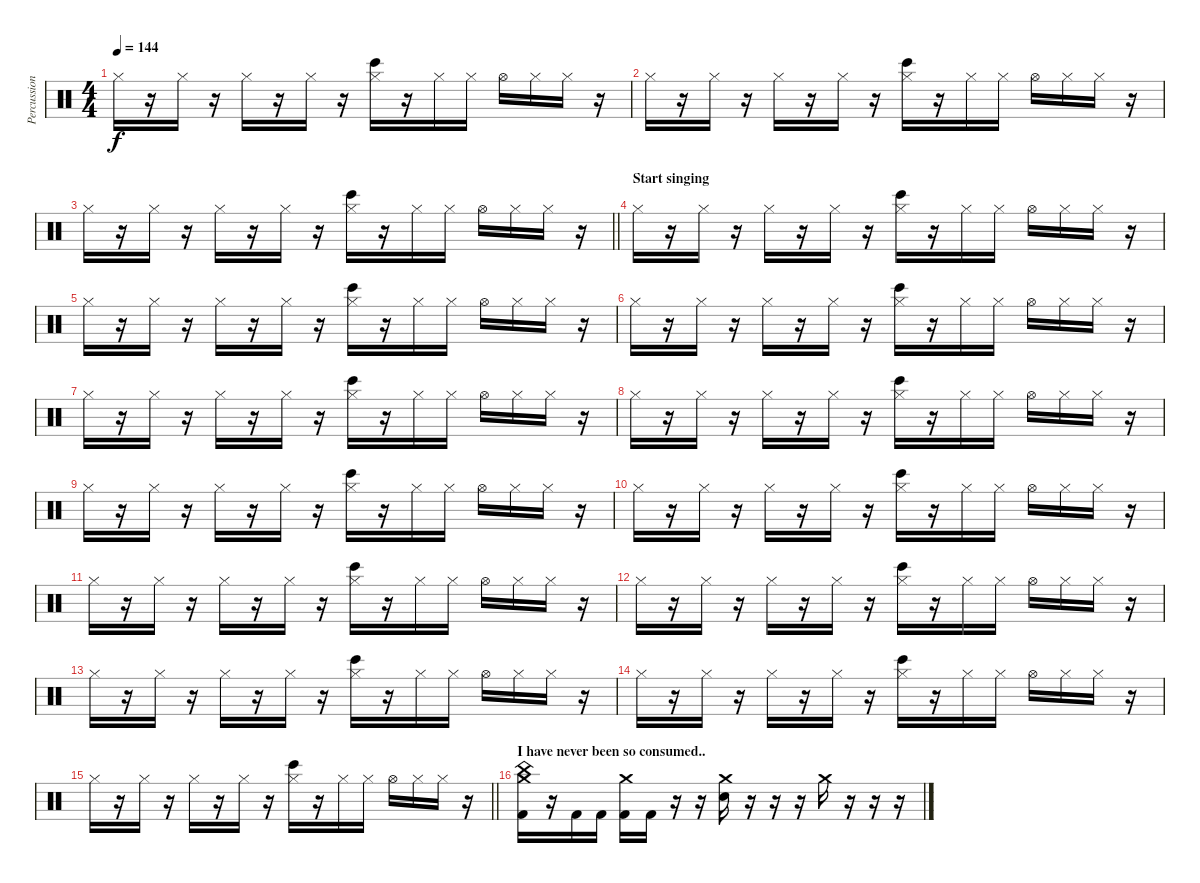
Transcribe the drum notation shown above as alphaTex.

\track ("Percussion" "Percussion") {instrument percussion}
\staff {score}
\articulation defaults
\ts (4 4)
\tempo 144
\clef neutral
\ks c "Hi-Hat (closed)".16{dy f}
r.16 "Hi-Hat (closed)".16 r.16 "Hi-Hat (closed)".16 r.16 "Hi-Hat (closed)".16 r.16 ("Hi-Hat (closed)" "Bongo High (hit)").16 r.16 "Hi-Hat (closed)".16 "Hi-Hat (closed)".16 "Hi-Hat (open)".16 "Hi-Hat (closed)".16 "Hi-Hat (closed)".16 r.16 |
"Hi-Hat (closed)".16 r.16 "Hi-Hat (closed)".16 r.16 "Hi-Hat (closed)".16 r.16 "Hi-Hat (closed)".16 r.16 ("Hi-Hat (closed)" "Bongo High (hit)").16 r.16 "Hi-Hat (closed)".16 "Hi-Hat (closed)".16 "Hi-Hat (open)".16 "Hi-Hat (closed)".16 "Hi-Hat (closed)".16 r.16 |
\barLineRight lightlight "Hi-Hat (closed)".16
r.16 "Hi-Hat (closed)".16 r.16 "Hi-Hat (closed)".16 r.16 "Hi-Hat (closed)".16 r.16 ("Hi-Hat (closed)" "Bongo High (hit)").16 r.16 "Hi-Hat (closed)".16 "Hi-Hat (closed)".16 "Hi-Hat (open)".16 "Hi-Hat (closed)".16 "Hi-Hat (closed)".16 r.16 |
\section ("" "Start singing")
"Hi-Hat (closed)".16 r.16 "Hi-Hat (closed)".16 r.16 "Hi-Hat (closed)".16 r.16 "Hi-Hat (closed)".16 r.16 ("Hi-Hat (closed)" "Bongo High (hit)").16 r.16 "Hi-Hat (closed)".16 "Hi-Hat (closed)".16 "Hi-Hat (open)".16 "Hi-Hat (closed)".16 "Hi-Hat (closed)".16 r.16 |
"Hi-Hat (closed)".16 r.16 "Hi-Hat (closed)".16 r.16 "Hi-Hat (closed)".16 r.16 "Hi-Hat (closed)".16 r.16 ("Hi-Hat (closed)" "Bongo High (hit)").16 r.16 "Hi-Hat (closed)".16 "Hi-Hat (closed)".16 "Hi-Hat (open)".16 "Hi-Hat (closed)".16 "Hi-Hat (closed)".16 r.16 |
"Hi-Hat (closed)".16 r.16 "Hi-Hat (closed)".16 r.16 "Hi-Hat (closed)".16 r.16 "Hi-Hat (closed)".16 r.16 ("Hi-Hat (closed)" "Bongo High (hit)").16 r.16 "Hi-Hat (closed)".16 "Hi-Hat (closed)".16 "Hi-Hat (open)".16 "Hi-Hat (closed)".16 "Hi-Hat (closed)".16 r.16 |
"Hi-Hat (closed)".16 r.16 "Hi-Hat (closed)".16 r.16 "Hi-Hat (closed)".16 r.16 "Hi-Hat (closed)".16 r.16 ("Hi-Hat (closed)" "Bongo High (hit)").16 r.16 "Hi-Hat (closed)".16 "Hi-Hat (closed)".16 "Hi-Hat (open)".16 "Hi-Hat (closed)".16 "Hi-Hat (closed)".16 r.16 |
"Hi-Hat (closed)".16 r.16 "Hi-Hat (closed)".16 r.16 "Hi-Hat (closed)".16 r.16 "Hi-Hat (closed)".16 r.16 ("Hi-Hat (closed)" "Bongo High (hit)").16 r.16 "Hi-Hat (closed)".16 "Hi-Hat (closed)".16 "Hi-Hat (open)".16 "Hi-Hat (closed)".16 "Hi-Hat (closed)".16 r.16 |
"Hi-Hat (closed)".16 r.16 "Hi-Hat (closed)".16 r.16 "Hi-Hat (closed)".16 r.16 "Hi-Hat (closed)".16 r.16 ("Hi-Hat (closed)" "Bongo High (hit)").16 r.16 "Hi-Hat (closed)".16 "Hi-Hat (closed)".16 "Hi-Hat (open)".16 "Hi-Hat (closed)".16 "Hi-Hat (closed)".16 r.16 |
"Hi-Hat (closed)".16 r.16 "Hi-Hat (closed)".16 r.16 "Hi-Hat (closed)".16 r.16 "Hi-Hat (closed)".16 r.16 ("Hi-Hat (closed)" "Bongo High (hit)").16 r.16 "Hi-Hat (closed)".16 "Hi-Hat (closed)".16 "Hi-Hat (open)".16 "Hi-Hat (closed)".16 "Hi-Hat (closed)".16 r.16 |
"Hi-Hat (closed)".16 r.16 "Hi-Hat (closed)".16 r.16 "Hi-Hat (closed)".16 r.16 "Hi-Hat (closed)".16 r.16 ("Hi-Hat (closed)" "Bongo High (hit)").16 r.16 "Hi-Hat (closed)".16 "Hi-Hat (closed)".16 "Hi-Hat (open)".16 "Hi-Hat (closed)".16 "Hi-Hat (closed)".16 r.16 |
"Hi-Hat (closed)".16 r.16 "Hi-Hat (closed)".16 r.16 "Hi-Hat (closed)".16 r.16 "Hi-Hat (closed)".16 r.16 ("Hi-Hat (closed)" "Bongo High (hit)").16 r.16 "Hi-Hat (closed)".16 "Hi-Hat (closed)".16 "Hi-Hat (open)".16 "Hi-Hat (closed)".16 "Hi-Hat (closed)".16 r.16 |
"Hi-Hat (closed)".16 r.16 "Hi-Hat (closed)".16 r.16 "Hi-Hat (closed)".16 r.16 "Hi-Hat (closed)".16 r.16 ("Hi-Hat (closed)" "Bongo High (hit)").16 r.16 "Hi-Hat (closed)".16 "Hi-Hat (closed)".16 "Hi-Hat (open)".16 "Hi-Hat (closed)".16 "Hi-Hat (closed)".16 r.16 |
"Hi-Hat (closed)".16 r.16 "Hi-Hat (closed)".16 r.16 "Hi-Hat (closed)".16 r.16 "Hi-Hat (closed)".16 r.16 ("Hi-Hat (closed)" "Bongo High (hit)").16 r.16 "Hi-Hat (closed)".16 "Hi-Hat (closed)".16 "Hi-Hat (open)".16 "Hi-Hat (closed)".16 "Hi-Hat (closed)".16 r.16 |
\barLineRight lightlight "Hi-Hat (closed)".16
r.16 "Hi-Hat (closed)".16 r.16 "Hi-Hat (closed)".16 r.16 "Hi-Hat (closed)".16 r.16 ("Hi-Hat (closed)" "Bongo High (hit)").16 r.16 "Hi-Hat (closed)".16 "Hi-Hat (closed)".16 "Hi-Hat (open)".16 "Hi-Hat (closed)".16 "Hi-Hat (closed)".16 r.16 |
\section ("" "I have never been so consumed..")
("Crash medium (hit)" "China (hit)" "Kick (hit) 2").16 r.16 "Kick (hit) 2".16 "Kick (hit) 2".16 ("Crash medium (hit)" "Kick (hit) 2").16 "Kick (hit) 2".16 r.16 r.16 ("Crash medium (hit)" "Electric Snare (hit)").16 r.16 r.16 r.16 "Crash medium (hit)".16 r.16 r.16 r.16
